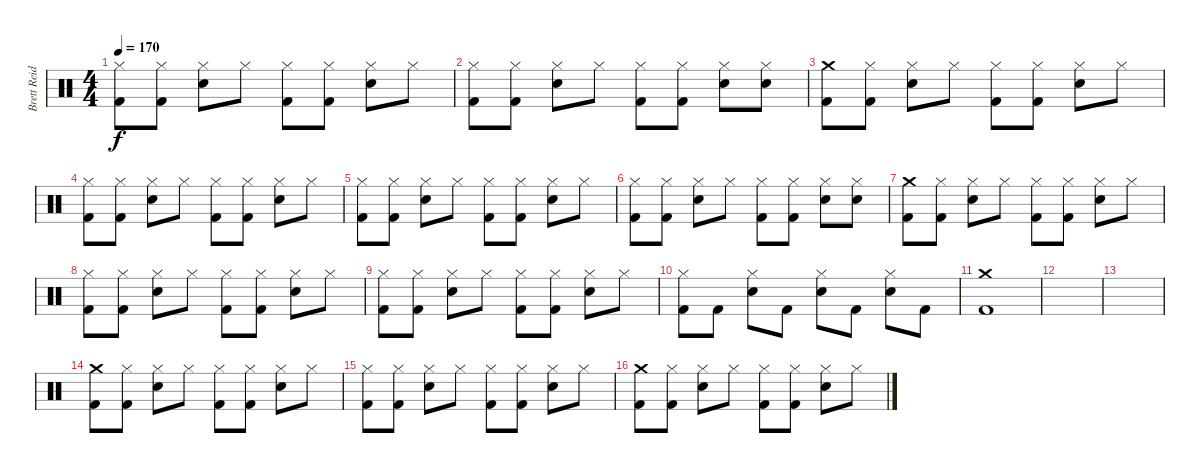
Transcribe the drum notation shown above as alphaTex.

\track ("Brett Reid" "Brett Reid") {instrument percussion}
\staff {score}
\articulation defaults
\ts (4 4)
\tempo 170
\clef neutral
\ks c
("Hi-Hat (closed)" "Kick (hit) 2").8{dy f} ("Hi-Hat (closed)" "Kick (hit) 2").8 ("Hi-Hat (closed)" "Snare (hit) 2").8 "Hi-Hat (closed)".8 ("Hi-Hat (closed)" "Kick (hit) 2").8 ("Hi-Hat (closed)" "Kick (hit) 2").8 ("Hi-Hat (closed)" "Snare (hit) 2").8 "Hi-Hat (closed)".8 |
("Hi-Hat (closed)" "Kick (hit) 2").8 ("Hi-Hat (closed)" "Kick (hit) 2").8 ("Hi-Hat (closed)" "Snare (hit) 2").8 "Hi-Hat (closed)".8 ("Hi-Hat (closed)" "Kick (hit) 2").8 ("Hi-Hat (closed)" "Kick (hit) 2").8 ("Hi-Hat (closed)" "Snare (hit) 2").8 ("Hi-Hat (closed)" "Snare (hit) 2").8 |
("Crash medium (hit)" "Kick (hit) 2").8 ("Hi-Hat (closed)" "Kick (hit) 2").8 ("Hi-Hat (closed)" "Snare (hit) 2").8 "Hi-Hat (closed)".8 ("Hi-Hat (closed)" "Kick (hit) 2").8 ("Hi-Hat (closed)" "Kick (hit) 2").8 ("Hi-Hat (closed)" "Snare (hit) 2").8 "Hi-Hat (closed)".8 |
("Hi-Hat (closed)" "Kick (hit) 2").8 ("Hi-Hat (closed)" "Kick (hit) 2").8 ("Hi-Hat (closed)" "Snare (hit) 2").8 "Hi-Hat (closed)".8 ("Hi-Hat (closed)" "Kick (hit) 2").8 ("Hi-Hat (closed)" "Kick (hit) 2").8 ("Hi-Hat (closed)" "Snare (hit) 2").8 "Hi-Hat (closed)".8 |
("Hi-Hat (closed)" "Kick (hit) 2").8 ("Hi-Hat (closed)" "Kick (hit) 2").8 ("Hi-Hat (closed)" "Snare (hit) 2").8 "Hi-Hat (closed)".8 ("Hi-Hat (closed)" "Kick (hit) 2").8 ("Hi-Hat (closed)" "Kick (hit) 2").8 ("Hi-Hat (closed)" "Snare (hit) 2").8 "Hi-Hat (closed)".8 |
("Hi-Hat (closed)" "Kick (hit) 2").8 ("Hi-Hat (closed)" "Kick (hit) 2").8 ("Hi-Hat (closed)" "Snare (hit) 2").8 "Hi-Hat (closed)".8 ("Hi-Hat (closed)" "Kick (hit) 2").8 ("Hi-Hat (closed)" "Kick (hit) 2").8 ("Hi-Hat (closed)" "Snare (hit) 2").8 ("Hi-Hat (closed)" "Snare (hit) 2").8 |
("Crash medium (hit)" "Kick (hit) 2").8 ("Hi-Hat (closed)" "Kick (hit) 2").8 ("Hi-Hat (closed)" "Snare (hit) 2").8 "Hi-Hat (closed)".8 ("Hi-Hat (closed)" "Kick (hit) 2").8 ("Hi-Hat (closed)" "Kick (hit) 2").8 ("Hi-Hat (closed)" "Snare (hit) 2").8 "Hi-Hat (closed)".8 |
("Hi-Hat (closed)" "Kick (hit) 2").8 ("Hi-Hat (closed)" "Kick (hit) 2").8 ("Hi-Hat (closed)" "Snare (hit) 2").8 "Hi-Hat (closed)".8 ("Hi-Hat (closed)" "Kick (hit) 2").8 ("Hi-Hat (closed)" "Kick (hit) 2").8 ("Hi-Hat (closed)" "Snare (hit) 2").8 "Hi-Hat (closed)".8 |
("Hi-Hat (closed)" "Kick (hit) 2").8 ("Hi-Hat (closed)" "Kick (hit) 2").8 ("Hi-Hat (closed)" "Snare (hit) 2").8 "Hi-Hat (closed)".8 ("Hi-Hat (closed)" "Kick (hit) 2").8 ("Hi-Hat (closed)" "Kick (hit) 2").8 ("Hi-Hat (closed)" "Snare (hit) 2").8 "Hi-Hat (closed)".8 |
("Hi-Hat (closed)" "Kick (hit) 2").8 "Kick (hit) 2".8 ("Hi-Hat (closed)" "Snare (hit) 2").8 "Kick (hit) 2".8 ("Hi-Hat (closed)" "Snare (hit) 2").8 "Kick (hit) 2".8 ("Hi-Hat (closed)" "Snare (hit) 2").8 "Kick (hit) 2".8 |
("Crash medium (hit)" "Kick (hit) 2").1 |
|
|
("Crash medium (hit)" "Kick (hit) 2").8 ("Hi-Hat (closed)" "Kick (hit) 2").8 ("Hi-Hat (closed)" "Snare (hit) 2").8 "Hi-Hat (closed)".8 ("Hi-Hat (closed)" "Kick (hit) 2").8 ("Hi-Hat (closed)" "Kick (hit) 2").8 ("Hi-Hat (closed)" "Snare (hit) 2").8 "Hi-Hat (closed)".8 |
("Hi-Hat (closed)" "Kick (hit) 2").8 ("Hi-Hat (closed)" "Kick (hit) 2").8 ("Hi-Hat (closed)" "Snare (hit) 2").8 "Hi-Hat (closed)".8 ("Hi-Hat (closed)" "Kick (hit) 2").8 ("Hi-Hat (closed)" "Kick (hit) 2").8 ("Hi-Hat (closed)" "Snare (hit) 2").8 "Hi-Hat (closed)".8 |
("Crash medium (hit)" "Kick (hit) 2").8 ("Hi-Hat (closed)" "Kick (hit) 2").8 ("Hi-Hat (closed)" "Snare (hit) 2").8 "Hi-Hat (closed)".8 ("Hi-Hat (closed)" "Kick (hit) 2").8 ("Hi-Hat (closed)" "Kick (hit) 2").8 ("Hi-Hat (closed)" "Snare (hit) 2").8 "Hi-Hat (closed)".8
